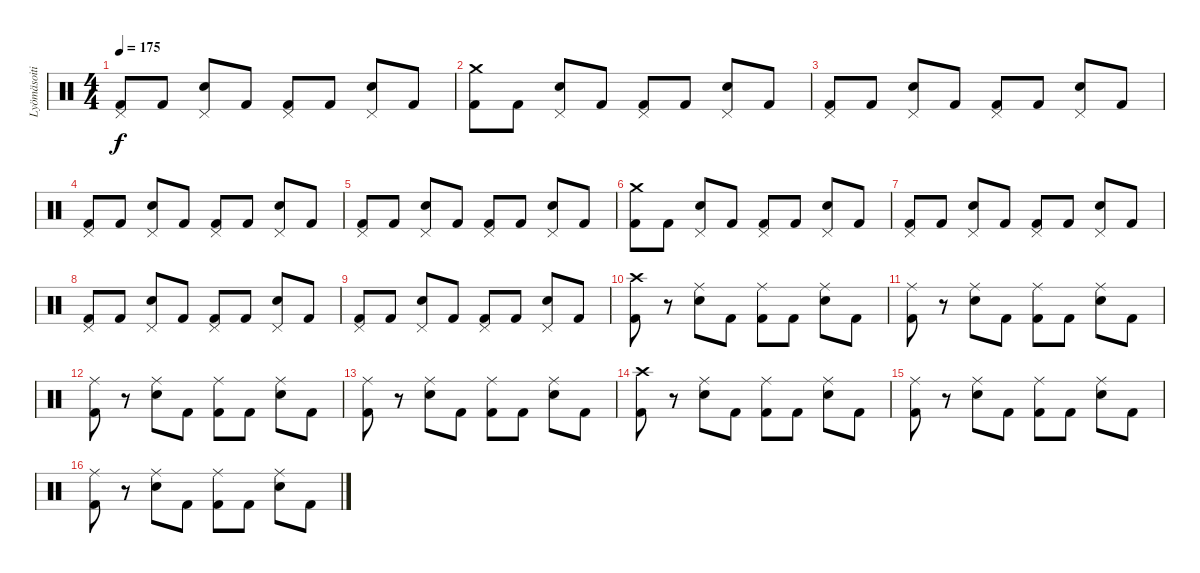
\track ("Lyömäsoitin" "Lyömäsoiti") {instrument percussion}
\staff {score}
\articulation defaults
\ts (4 4)
\tempo 175
\clef neutral
\ks c
("Pedal Hi-Hat (hit)" "Kick (hit) 2").8{dy f} "Kick (hit) 2".8 ("Pedal Hi-Hat (hit)" "Electric Snare (hit)").8 "Kick (hit) 2".8 ("Pedal Hi-Hat (hit)" "Kick (hit) 2").8 "Kick (hit) 2".8 ("Pedal Hi-Hat (hit)" "Electric Snare (hit)").8 "Kick (hit) 2".8 |
("Crash medium (hit)" "Kick (hit) 2").8 "Kick (hit) 2".8 ("Pedal Hi-Hat (hit)" "Electric Snare (hit)").8 "Kick (hit) 2".8 ("Pedal Hi-Hat (hit)" "Kick (hit) 2").8 "Kick (hit) 2".8 ("Pedal Hi-Hat (hit)" "Electric Snare (hit)").8 "Kick (hit) 2".8 |
("Pedal Hi-Hat (hit)" "Kick (hit) 2").8 "Kick (hit) 2".8 ("Pedal Hi-Hat (hit)" "Electric Snare (hit)").8 "Kick (hit) 2".8 ("Pedal Hi-Hat (hit)" "Kick (hit) 2").8 "Kick (hit) 2".8 ("Pedal Hi-Hat (hit)" "Electric Snare (hit)").8 "Kick (hit) 2".8 |
("Pedal Hi-Hat (hit)" "Kick (hit) 2").8 "Kick (hit) 2".8 ("Pedal Hi-Hat (hit)" "Electric Snare (hit)").8 "Kick (hit) 2".8 ("Pedal Hi-Hat (hit)" "Kick (hit) 2").8 "Kick (hit) 2".8 ("Pedal Hi-Hat (hit)" "Electric Snare (hit)").8 "Kick (hit) 2".8 |
("Pedal Hi-Hat (hit)" "Kick (hit) 2").8 "Kick (hit) 2".8 ("Pedal Hi-Hat (hit)" "Electric Snare (hit)").8 "Kick (hit) 2".8 ("Pedal Hi-Hat (hit)" "Kick (hit) 2").8 "Kick (hit) 2".8 ("Pedal Hi-Hat (hit)" "Electric Snare (hit)").8 "Kick (hit) 2".8 |
("Crash medium (hit)" "Kick (hit) 2").8 "Kick (hit) 2".8 ("Pedal Hi-Hat (hit)" "Electric Snare (hit)").8 "Kick (hit) 2".8 ("Pedal Hi-Hat (hit)" "Kick (hit) 2").8 "Kick (hit) 2".8 ("Pedal Hi-Hat (hit)" "Electric Snare (hit)").8 "Kick (hit) 2".8 |
("Pedal Hi-Hat (hit)" "Kick (hit) 2").8 "Kick (hit) 2".8 ("Pedal Hi-Hat (hit)" "Electric Snare (hit)").8 "Kick (hit) 2".8 ("Pedal Hi-Hat (hit)" "Kick (hit) 2").8 "Kick (hit) 2".8 ("Pedal Hi-Hat (hit)" "Electric Snare (hit)").8 "Kick (hit) 2".8 |
("Pedal Hi-Hat (hit)" "Kick (hit) 2").8 "Kick (hit) 2".8 ("Pedal Hi-Hat (hit)" "Electric Snare (hit)").8 "Kick (hit) 2".8 ("Pedal Hi-Hat (hit)" "Kick (hit) 2").8 "Kick (hit) 2".8 ("Pedal Hi-Hat (hit)" "Electric Snare (hit)").8 "Kick (hit) 2".8 |
("Pedal Hi-Hat (hit)" "Kick (hit) 2").8 "Kick (hit) 2".8 ("Pedal Hi-Hat (hit)" "Electric Snare (hit)").8 "Kick (hit) 2".8 ("Pedal Hi-Hat (hit)" "Kick (hit) 2").8 "Kick (hit) 2".8 ("Pedal Hi-Hat (hit)" "Electric Snare (hit)").8 "Kick (hit) 2".8 |
("Crash high (hit)" "Kick (hit) 2").8 r.8 ("Ride (middle)" "Electric Snare (hit)").8 "Kick (hit) 2".8 ("Ride (middle)" "Kick (hit) 2").8 "Kick (hit) 2".8 ("Ride (middle)" "Electric Snare (hit)").8 "Kick (hit) 2".8 |
("Ride (middle)" "Kick (hit) 2").8 r.8 ("Ride (middle)" "Electric Snare (hit)").8 "Kick (hit) 2".8 ("Ride (middle)" "Kick (hit) 2").8 "Kick (hit) 2".8 ("Ride (middle)" "Electric Snare (hit)").8 "Kick (hit) 2".8 |
("Ride (middle)" "Kick (hit) 2").8 r.8 ("Ride (middle)" "Electric Snare (hit)").8 "Kick (hit) 2".8 ("Ride (middle)" "Kick (hit) 2").8 "Kick (hit) 2".8 ("Ride (middle)" "Electric Snare (hit)").8 "Kick (hit) 2".8 |
("Ride (middle)" "Kick (hit) 2").8 r.8 ("Ride (middle)" "Electric Snare (hit)").8 "Kick (hit) 2".8 ("Ride (middle)" "Kick (hit) 2").8 "Kick (hit) 2".8 ("Ride (middle)" "Electric Snare (hit)").8 "Kick (hit) 2".8 |
("Crash high (hit)" "Kick (hit) 2").8 r.8 ("Ride (middle)" "Electric Snare (hit)").8 "Kick (hit) 2".8 ("Ride (middle)" "Kick (hit) 2").8 "Kick (hit) 2".8 ("Ride (middle)" "Electric Snare (hit)").8 "Kick (hit) 2".8 |
("Ride (middle)" "Kick (hit) 2").8 r.8 ("Ride (middle)" "Electric Snare (hit)").8 "Kick (hit) 2".8 ("Ride (middle)" "Kick (hit) 2").8 "Kick (hit) 2".8 ("Ride (middle)" "Electric Snare (hit)").8 "Kick (hit) 2".8 |
("Ride (middle)" "Kick (hit) 2").8 r.8 ("Ride (middle)" "Electric Snare (hit)").8 "Kick (hit) 2".8 ("Ride (middle)" "Kick (hit) 2").8 "Kick (hit) 2".8 ("Ride (middle)" "Electric Snare (hit)").8 "Kick (hit) 2".8
